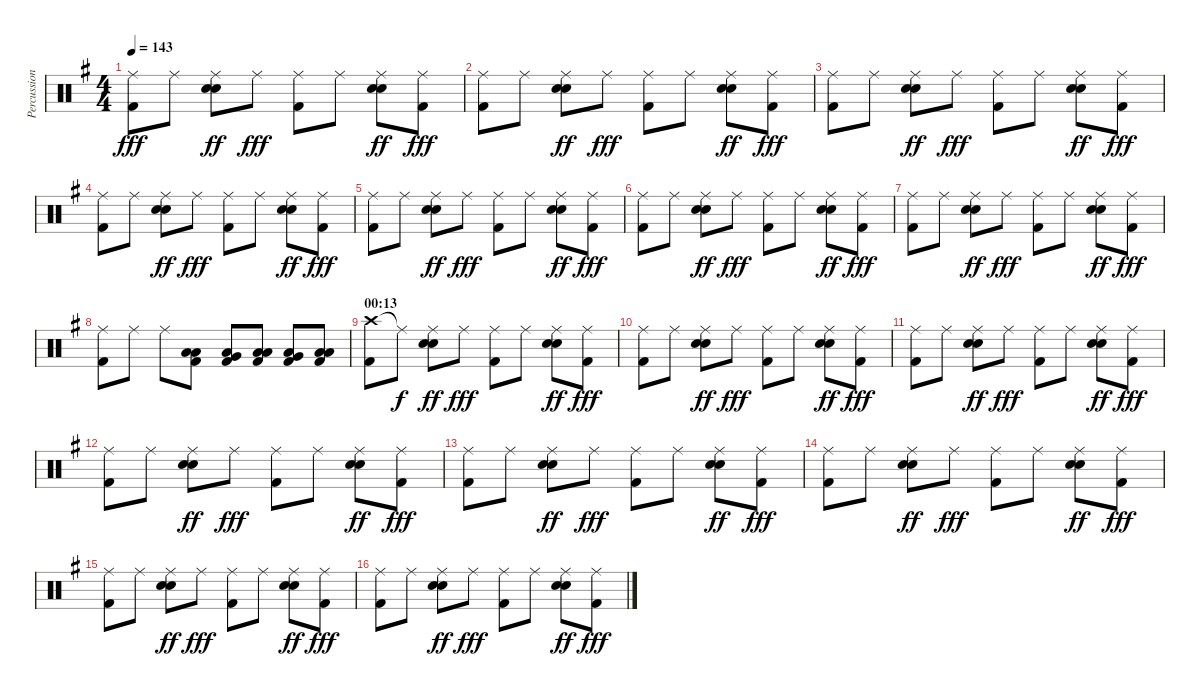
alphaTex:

\track ("Percussion" "Percussion") {instrument percussion}
\staff {score}
\articulation defaults
\ts (4 4)
\tempo 143
\clef neutral
\ks g
("Ride (middle)" "Kick (hit) 2").8{dy fff} "Ride (middle)".8 ("Ride (middle)" "Snare (hit) 2" "Electric Snare (hit)").8{dy ff} "Ride (middle)".8{dy fff} ("Ride (middle)" "Kick (hit) 2").8 "Ride (middle)".8 ("Ride (middle)" "Snare (hit) 2" "Electric Snare (hit)").8{dy ff} ("Ride (middle)" "Kick (hit) 2").8{dy fff} |
("Ride (middle)" "Kick (hit) 2").8 "Ride (middle)".8 ("Ride (middle)" "Snare (hit) 2" "Electric Snare (hit)").8{dy ff} "Ride (middle)".8{dy fff} ("Ride (middle)" "Kick (hit) 2").8 "Ride (middle)".8 ("Ride (middle)" "Snare (hit) 2" "Electric Snare (hit)").8{dy ff} ("Ride (middle)" "Kick (hit) 2").8{dy fff} |
("Ride (middle)" "Kick (hit) 2").8 "Ride (middle)".8 ("Ride (middle)" "Snare (hit) 2" "Electric Snare (hit)").8{dy ff} "Ride (middle)".8{dy fff} ("Ride (middle)" "Kick (hit) 2").8 "Ride (middle)".8 ("Ride (middle)" "Snare (hit) 2" "Electric Snare (hit)").8{dy ff} ("Ride (middle)" "Kick (hit) 2").8{dy fff} |
("Ride (middle)" "Kick (hit) 2").8 "Ride (middle)".8 ("Ride (middle)" "Snare (hit) 2" "Electric Snare (hit)").8{dy ff} "Ride (middle)".8{dy fff} ("Ride (middle)" "Kick (hit) 2").8 "Ride (middle)".8 ("Ride (middle)" "Snare (hit) 2" "Electric Snare (hit)").8{dy ff} ("Ride (middle)" "Kick (hit) 2").8{dy fff} |
("Ride (middle)" "Kick (hit) 2").8 "Ride (middle)".8 ("Ride (middle)" "Snare (hit) 2" "Electric Snare (hit)").8{dy ff} "Ride (middle)".8{dy fff} ("Ride (middle)" "Kick (hit) 2").8 "Ride (middle)".8 ("Ride (middle)" "Snare (hit) 2" "Electric Snare (hit)").8{dy ff} ("Ride (middle)" "Kick (hit) 2").8{dy fff} |
("Ride (middle)" "Kick (hit) 2").8 "Ride (middle)".8 ("Ride (middle)" "Snare (hit) 2" "Electric Snare (hit)").8{dy ff} "Ride (middle)".8{dy fff} ("Ride (middle)" "Kick (hit) 2").8 "Ride (middle)".8 ("Ride (middle)" "Snare (hit) 2" "Electric Snare (hit)").8{dy ff} ("Ride (middle)" "Kick (hit) 2").8{dy fff} |
("Ride (middle)" "Kick (hit) 2").8 "Ride (middle)".8 ("Ride (middle)" "Snare (hit) 2" "Electric Snare (hit)").8{dy ff} "Ride (middle)".8{dy fff} ("Ride (middle)" "Kick (hit) 2").8 "Ride (middle)".8 ("Ride (middle)" "Snare (hit) 2" "Electric Snare (hit)").8{dy ff} ("Ride (middle)" "Kick (hit) 2").8{dy fff} |
("Ride (middle)" "Kick (hit) 2").8 "Ride (middle)".8 "Ride (middle)".8 ("Low Tom (hit)" "Low Floor Tom (hit)" "Kick (hit) 2").8 ("Low Tom (hit)" "Very Low Tom (hit)" "Kick (hit) 2").8 ("Low Tom (hit)" "Low Floor Tom (hit)" "Kick (hit) 2").8 ("Low Tom (hit)" "Very Low Tom (hit)" "Kick (hit) 2").8 ("Low Tom (hit)" "Low Floor Tom (hit)" "Kick (hit) 2").8 |
\section ("" "00:13")
("Crash high (hit)" "Kick (hit) 2").8 "Ride (middle)"{t}.8{dy f} ("Ride (middle)" "Snare (hit) 2" "Electric Snare (hit)").8{dy ff} "Ride (middle)".8{dy fff} ("Ride (middle)" "Kick (hit) 2").8 "Ride (middle)".8 ("Ride (middle)" "Snare (hit) 2" "Electric Snare (hit)").8{dy ff} ("Ride (middle)" "Kick (hit) 2").8{dy fff} |
("Ride (middle)" "Kick (hit) 2").8 "Ride (middle)".8 ("Ride (middle)" "Snare (hit) 2" "Electric Snare (hit)").8{dy ff} "Ride (middle)".8{dy fff} ("Ride (middle)" "Kick (hit) 2").8 "Ride (middle)".8 ("Ride (middle)" "Snare (hit) 2" "Electric Snare (hit)").8{dy ff} ("Ride (middle)" "Kick (hit) 2").8{dy fff} |
("Ride (middle)" "Kick (hit) 2").8 "Ride (middle)".8 ("Ride (middle)" "Snare (hit) 2" "Electric Snare (hit)").8{dy ff} "Ride (middle)".8{dy fff} ("Ride (middle)" "Kick (hit) 2").8 "Ride (middle)".8 ("Ride (middle)" "Snare (hit) 2" "Electric Snare (hit)").8{dy ff} ("Ride (middle)" "Kick (hit) 2").8{dy fff} |
("Ride (middle)" "Kick (hit) 2").8 "Ride (middle)".8 ("Ride (middle)" "Snare (hit) 2" "Electric Snare (hit)").8{dy ff} "Ride (middle)".8{dy fff} ("Ride (middle)" "Kick (hit) 2").8 "Ride (middle)".8 ("Ride (middle)" "Snare (hit) 2" "Electric Snare (hit)").8{dy ff} ("Ride (middle)" "Kick (hit) 2").8{dy fff} |
("Ride (middle)" "Kick (hit) 2").8 "Ride (middle)".8 ("Ride (middle)" "Snare (hit) 2" "Electric Snare (hit)").8{dy ff} "Ride (middle)".8{dy fff} ("Ride (middle)" "Kick (hit) 2").8 "Ride (middle)".8 ("Ride (middle)" "Snare (hit) 2" "Electric Snare (hit)").8{dy ff} ("Ride (middle)" "Kick (hit) 2").8{dy fff} |
("Ride (middle)" "Kick (hit) 2").8 "Ride (middle)".8 ("Ride (middle)" "Snare (hit) 2" "Electric Snare (hit)").8{dy ff} "Ride (middle)".8{dy fff} ("Ride (middle)" "Kick (hit) 2").8 "Ride (middle)".8 ("Ride (middle)" "Snare (hit) 2" "Electric Snare (hit)").8{dy ff} ("Ride (middle)" "Kick (hit) 2").8{dy fff} |
("Ride (middle)" "Kick (hit) 2").8 "Ride (middle)".8 ("Ride (middle)" "Snare (hit) 2" "Electric Snare (hit)").8{dy ff} "Ride (middle)".8{dy fff} ("Ride (middle)" "Kick (hit) 2").8 "Ride (middle)".8 ("Ride (middle)" "Snare (hit) 2" "Electric Snare (hit)").8{dy ff} ("Ride (middle)" "Kick (hit) 2").8{dy fff} |
("Ride (middle)" "Kick (hit) 2").8 "Ride (middle)".8 ("Ride (middle)" "Snare (hit) 2" "Electric Snare (hit)").8{dy ff} "Ride (middle)".8{dy fff} ("Ride (middle)" "Kick (hit) 2").8 "Ride (middle)".8 ("Ride (middle)" "Snare (hit) 2" "Electric Snare (hit)").8{dy ff} ("Ride (middle)" "Kick (hit) 2").8{dy fff}
